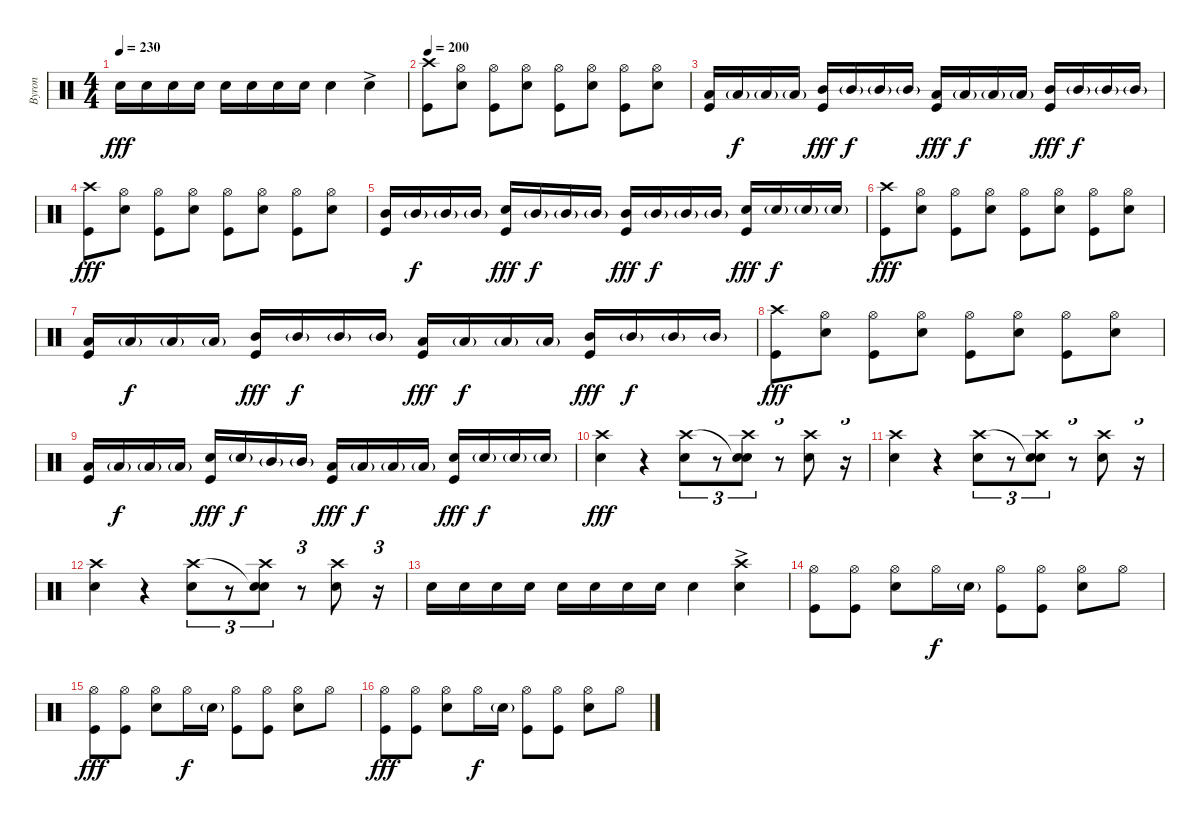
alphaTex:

\track ("Byron" "Byron") {instrument percussion}
\staff {score}
\articulation defaults
\ts (4 4)
\tempo 230
\clef neutral
\ks c "Electric Snare (hit)".16{dy fff} "Electric Snare (hit)".16 "Electric Snare (hit)".16 "Electric Snare (hit)".16 "Electric Snare (hit)".16 "Electric Snare (hit)".16 "Electric Snare (hit)".16 "Electric Snare (hit)".16 "Electric Snare (hit)".4 "Electric Snare (hit)"{ac}.4
|
\tempo 200
("Crash high (hit)" "Kick (hit)").8 ("Electric Snare (hit)" "Hi-Hat (open)").8 ("Kick (hit)" "Hi-Hat (open)").8 ("Electric Snare (hit)" "Hi-Hat (open)").8 ("Kick (hit)" "Hi-Hat (open)").8 ("Electric Snare (hit)" "Hi-Hat (open)").8 ("Kick (hit)" "Hi-Hat (open)").8 ("Electric Snare (hit)" "Hi-Hat (open)").8 |
("Low Tom (hit)" "Kick (hit)").16 "Low Tom (hit)"{g}.16{dy f} "Low Tom (hit)"{g}.16 "Low Tom (hit)"{g}.16 ("Mid Tom (hit)" "Kick (hit)").16{dy fff} "Mid Tom (hit)"{g}.16{dy f} "Mid Tom (hit)"{g}.16 "Mid Tom (hit)"{g}.16 ("Low Tom (hit)" "Kick (hit)").16{dy fff} "Low Tom (hit)"{g}.16{dy f} "Low Tom (hit)"{g}.16 "Low Tom (hit)"{g}.16 ("Mid Tom (hit)" "Kick (hit)").16{dy fff} "Mid Tom (hit)"{g}.16{dy f} "Mid Tom (hit)"{g}.16 "Mid Tom (hit)"{g}.16 |
("Crash high (hit)" "Kick (hit)").8{dy fff} ("Electric Snare (hit)" "Hi-Hat (open)").8 ("Kick (hit)" "Hi-Hat (open)").8 ("Electric Snare (hit)" "Hi-Hat (open)").8 ("Kick (hit)" "Hi-Hat (open)").8 ("Electric Snare (hit)" "Hi-Hat (open)").8 ("Kick (hit)" "Hi-Hat (open)").8 ("Electric Snare (hit)" "Hi-Hat (open)").8 |
("Mid Tom (hit)" "Kick (hit)").16 "Mid Tom (hit)"{g}.16{dy f} "Mid Tom (hit)"{g}.16 "Mid Tom (hit)"{g}.16 ("Electric Snare (hit)" "Kick (hit)").16{dy fff} "Mid Tom (hit)"{g}.16{dy f} "Mid Tom (hit)"{g}.16 "Mid Tom (hit)"{g}.16 ("Mid Tom (hit)" "Kick (hit)").16{dy fff} "Mid Tom (hit)"{g}.16{dy f} "Mid Tom (hit)"{g}.16 "Mid Tom (hit)"{g}.16 ("Electric Snare (hit)" "Kick (hit)").16{dy fff} "Electric Snare (hit)"{g}.16{dy f} "Electric Snare (hit)"{g}.16 "Electric Snare (hit)"{g}.16 |
("Crash high (hit)" "Kick (hit)").8{dy fff} ("Electric Snare (hit)" "Hi-Hat (open)").8 ("Kick (hit)" "Hi-Hat (open)").8 ("Electric Snare (hit)" "Hi-Hat (open)").8 ("Kick (hit)" "Hi-Hat (open)").8 ("Electric Snare (hit)" "Hi-Hat (open)").8 ("Kick (hit)" "Hi-Hat (open)").8 ("Electric Snare (hit)" "Hi-Hat (open)").8 |
("Low Tom (hit)" "Kick (hit)").16 "Low Tom (hit)"{g}.16{dy f} "Low Tom (hit)"{g}.16 "Low Tom (hit)"{g}.16 ("Mid Tom (hit)" "Kick (hit)").16{dy fff} "Mid Tom (hit)"{g}.16{dy f} "Mid Tom (hit)"{g}.16 "Mid Tom (hit)"{g}.16 ("Low Tom (hit)" "Kick (hit)").16{dy fff} "Low Tom (hit)"{g}.16{dy f} "Low Tom (hit)"{g}.16 "Low Tom (hit)"{g}.16 ("Mid Tom (hit)" "Kick (hit)").16{dy fff} "Mid Tom (hit)"{g}.16{dy f} "Mid Tom (hit)"{g}.16 "Mid Tom (hit)"{g}.16 |
("Crash high (hit)" "Kick (hit)").8{dy fff} ("Electric Snare (hit)" "Hi-Hat (open)").8 ("Kick (hit)" "Hi-Hat (open)").8 ("Electric Snare (hit)" "Hi-Hat (open)").8 ("Kick (hit)" "Hi-Hat (open)").8 ("Electric Snare (hit)" "Hi-Hat (open)").8 ("Kick (hit)" "Hi-Hat (open)").8 ("Electric Snare (hit)" "Hi-Hat (open)").8 |
("Low Tom (hit)" "Kick (hit)").16 "Low Tom (hit)"{g}.16{dy f} "Low Tom (hit)"{g}.16 "Low Tom (hit)"{g}.16 ("Electric Snare (hit)" "Kick (hit)").16{dy fff} "Electric Snare (hit)"{g}.16{dy f} "Mid Tom (hit)"{g}.16 "Mid Tom (hit)"{g}.16 ("Low Tom (hit)" "Kick (hit)").16{dy fff} "Low Tom (hit)"{g}.16{dy f} "Low Tom (hit)"{g}.16 "Low Tom (hit)"{g}.16 ("Electric Snare (hit)" "Kick (hit)").16{dy fff} "Electric Snare (hit)"{g}.16{dy f} "Electric Snare (hit)"{g}.16 "Electric Snare (hit)"{g}.16 |
("Electric Snare (hit)" "Crash high (hit)").4{dy fff} r.4{volume 0} ("Electric Snare (hit)" "Crash high (hit)").8{tu (3 2) volume 13} r.8{tu (3 2)} ("Electric Snare (hit)" "Snare (hit)"{t} "Crash high (hit)").8{tu (3 2)} r.8{tu (3 2)} ("Electric Snare (hit)" "Crash high (hit)").8 r.16{tu (3 2)} |
("Electric Snare (hit)" "Crash high (hit)").4 r.4{volume 0} ("Electric Snare (hit)" "Crash high (hit)").8{tu (3 2) volume 13} r.8{tu (3 2)} ("Electric Snare (hit)" "Snare (hit)"{t} "Crash high (hit)").8{tu (3 2)} r.8{tu (3 2)} ("Electric Snare (hit)" "Crash high (hit)").8 r.16{tu (3 2)} |
("Electric Snare (hit)" "Crash high (hit)").4 r.4{volume 0} ("Electric Snare (hit)" "Crash high (hit)").8{tu (3 2) volume 13} r.8{tu (3 2)} ("Electric Snare (hit)" "Snare (hit)"{t} "Crash high (hit)").8{tu (3 2)} r.8{tu (3 2)} ("Electric Snare (hit)" "Crash high (hit)").8 r.16{tu (3 2)} |
"Electric Snare (hit)".16 "Electric Snare (hit)".16 "Electric Snare (hit)".16 "Electric Snare (hit)".16 "Electric Snare (hit)".16 "Electric Snare (hit)".16 "Electric Snare (hit)".16 "Electric Snare (hit)".16 "Electric Snare (hit)".4 ("Electric Snare (hit)"{ac} "Crash high (hit)").4 |
("Hi-Hat (open)" "Kick (hit)").8 ("Hi-Hat (open)" "Kick (hit)").8 ("Hi-Hat (open)" "Electric Snare (hit)").8 "Hi-Hat (open)".16{dy f} "Electric Snare (hit)"{g}.16 ("Hi-Hat (open)" "Kick (hit)").8 ("Hi-Hat (open)" "Kick (hit)").8 ("Hi-Hat (open)" "Electric Snare (hit)").8 "Hi-Hat (open)".8 |
("Hi-Hat (open)" "Kick (hit)").8{dy fff} ("Hi-Hat (open)" "Kick (hit)").8 ("Hi-Hat (open)" "Electric Snare (hit)").8 "Hi-Hat (open)".16{dy f} "Electric Snare (hit)"{g}.16 ("Hi-Hat (open)" "Kick (hit)").8 ("Hi-Hat (open)" "Kick (hit)").8 ("Hi-Hat (open)" "Electric Snare (hit)").8 "Hi-Hat (open)".8 |
("Hi-Hat (open)" "Kick (hit)").8{dy fff} ("Hi-Hat (open)" "Kick (hit)").8 ("Hi-Hat (open)" "Electric Snare (hit)").8 "Hi-Hat (open)".16{dy f} "Electric Snare (hit)"{g}.16 ("Hi-Hat (open)" "Kick (hit)").8 ("Hi-Hat (open)" "Kick (hit)").8 ("Hi-Hat (open)" "Electric Snare (hit)").8 "Hi-Hat (open)".8
